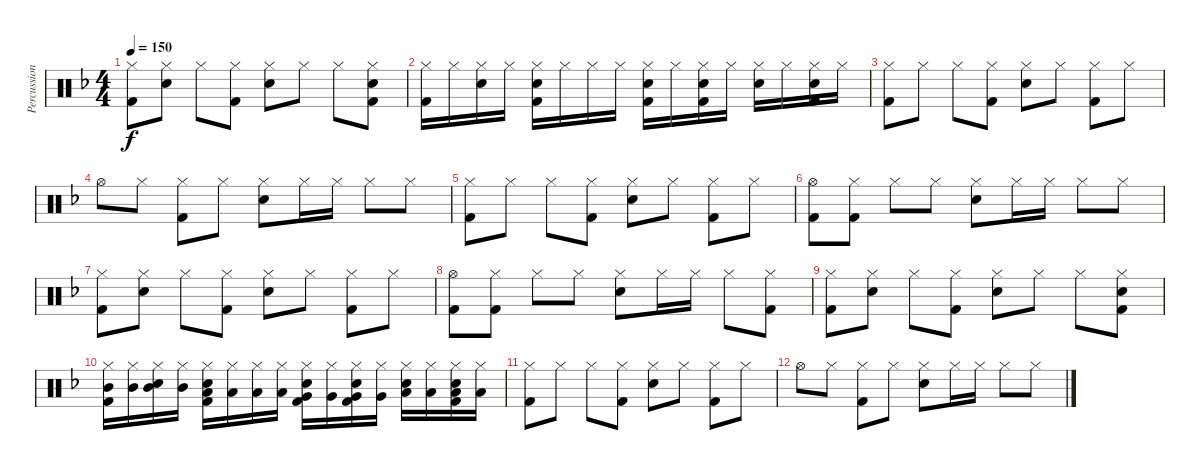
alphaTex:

\track ("Percussion" "Percussion") {instrument percussion}
\staff {score}
\articulation defaults
\ts (4 4)
\tempo 150
\clef neutral
\ks f
("Hi-Hat (closed)" "Kick (hit) 2").8{dy f} ("Hi-Hat (closed)" "Electric Snare (hit)").8 "Hi-Hat (closed)".8 ("Hi-Hat (closed)" "Kick (hit) 2").8 ("Hi-Hat (closed)" "Electric Snare (hit)").8 "Hi-Hat (closed)".8 "Hi-Hat (closed)".8 ("Hi-Hat (closed)" "Electric Snare (hit)" "Kick (hit) 2").8 |
("Hi-Hat (closed)" "Kick (hit) 2").16 "Hi-Hat (closed)".16 ("Hi-Hat (closed)" "Electric Snare (hit)").16 "Hi-Hat (closed)".16 ("Hi-Hat (closed)" "Electric Snare (hit)" "Kick (hit) 2").16 "Hi-Hat (closed)".16 "Hi-Hat (closed)".16 "Hi-Hat (closed)".16 ("Hi-Hat (closed)" "Electric Snare (hit)" "Kick (hit) 2").16 "Hi-Hat (closed)".16 ("Hi-Hat (closed)" "Electric Snare (hit)" "Kick (hit) 2").16 "Hi-Hat (closed)".16 ("Hi-Hat (closed)" "Electric Snare (hit)").16 "Hi-Hat (closed)".16 ("Hi-Hat (closed)" "Electric Snare (hit)" "Kick (hit) 2").16 "Hi-Hat (closed)".16 |
("Hi-Hat (closed)" "Kick (hit) 2").8 "Hi-Hat (closed)".8 "Hi-Hat (closed)".8 ("Hi-Hat (closed)" "Kick (hit) 2").8 ("Hi-Hat (closed)" "Electric Snare (hit)").8 "Hi-Hat (closed)".8 ("Hi-Hat (closed)" "Kick (hit) 2").8 "Hi-Hat (closed)".8 |
"Hi-Hat (open)".8 "Hi-Hat (closed)".8 ("Hi-Hat (closed)" "Kick (hit) 2").8 "Hi-Hat (closed)".8 ("Hi-Hat (closed)" "Electric Snare (hit)").8 "Hi-Hat (closed)".16 "Hi-Hat (closed)".16 "Hi-Hat (closed)".8 "Hi-Hat (closed)".8 |
("Hi-Hat (closed)" "Kick (hit) 2").8 "Hi-Hat (closed)".8 "Hi-Hat (closed)".8 ("Hi-Hat (closed)" "Kick (hit) 2").8 ("Hi-Hat (closed)" "Electric Snare (hit)").8 "Hi-Hat (closed)".8 ("Hi-Hat (closed)" "Kick (hit) 2").8 "Hi-Hat (closed)".8 |
("Hi-Hat (open)" "Kick (hit) 2").8 ("Hi-Hat (closed)" "Kick (hit) 2").8 "Hi-Hat (closed)".8 "Hi-Hat (closed)".8 ("Hi-Hat (closed)" "Electric Snare (hit)").8 "Hi-Hat (closed)".16 "Hi-Hat (closed)".16 "Hi-Hat (closed)".8 "Hi-Hat (closed)".8 |
("Hi-Hat (closed)" "Kick (hit) 2").8 ("Hi-Hat (closed)" "Electric Snare (hit)").8 "Hi-Hat (closed)".8 ("Hi-Hat (closed)" "Kick (hit) 2").8 ("Hi-Hat (closed)" "Electric Snare (hit)").8 "Hi-Hat (closed)".8 ("Hi-Hat (closed)" "Kick (hit) 2").8 "Hi-Hat (closed)".8 |
("Hi-Hat (open)" "Kick (hit) 2").8 ("Hi-Hat (closed)" "Kick (hit) 2").8 "Hi-Hat (closed)".8 "Hi-Hat (closed)".8 ("Hi-Hat (closed)" "Electric Snare (hit)").8 "Hi-Hat (closed)".16 "Hi-Hat (closed)".16 "Hi-Hat (closed)".8 ("Hi-Hat (closed)" "Kick (hit) 2").8 |
("Hi-Hat (closed)" "Kick (hit) 2").8 ("Hi-Hat (closed)" "Electric Snare (hit)").8 "Hi-Hat (closed)".8 ("Hi-Hat (closed)" "Kick (hit) 2").8 ("Hi-Hat (closed)" "Electric Snare (hit)").8 "Hi-Hat (closed)".8 "Hi-Hat (closed)".8 ("Hi-Hat (closed)" "Electric Snare (hit)" "Kick (hit) 2").8 |
("Hi-Hat (closed)" "Mid Tom (hit)" "Kick (hit) 2").16 ("Hi-Hat (closed)" "Mid Tom (hit)").16 ("Hi-Hat (closed)" "Mid Tom (hit)" "Electric Snare (hit)").16 ("Hi-Hat (closed)" "Mid Tom (hit)").16 ("Hi-Hat (closed)" "Low Tom (hit)" "Electric Snare (hit)" "Kick (hit) 2").16 ("Hi-Hat (closed)" "Low Tom (hit)").16 ("Hi-Hat (closed)" "Low Tom (hit)").16 ("Hi-Hat (closed)" "Low Tom (hit)").16 ("Hi-Hat (closed)" "Very Low Tom (hit)" "Electric Snare (hit)" "Kick (hit) 2").16 ("Hi-Hat (closed)" "Very Low Tom (hit)").16 ("Hi-Hat (closed)" "Very Low Tom (hit)" "Electric Snare (hit)" "Kick (hit) 2").16 ("Hi-Hat (closed)" "Very Low Tom (hit)").16 ("Hi-Hat (closed)" "Low Floor Tom (hit)" "Electric Snare (hit)").16 ("Hi-Hat (closed)" "Low Floor Tom (hit)").16 ("Hi-Hat (closed)" "Low Floor Tom (hit)" "Electric Snare (hit)" "Kick (hit) 2").16 ("Hi-Hat (closed)" "Low Floor Tom (hit)").16 |
("Hi-Hat (closed)" "Kick (hit) 2").8 "Hi-Hat (closed)".8 "Hi-Hat (closed)".8 ("Hi-Hat (closed)" "Kick (hit) 2").8 ("Hi-Hat (closed)" "Electric Snare (hit)").8 "Hi-Hat (closed)".8 ("Hi-Hat (closed)" "Kick (hit) 2").8 "Hi-Hat (closed)".8 |
"Hi-Hat (open)".8 "Hi-Hat (closed)".8 ("Hi-Hat (closed)" "Kick (hit) 2").8 "Hi-Hat (closed)".8 ("Hi-Hat (closed)" "Electric Snare (hit)").8 "Hi-Hat (closed)".16 "Hi-Hat (closed)".16 "Hi-Hat (closed)".8 "Hi-Hat (closed)".8
